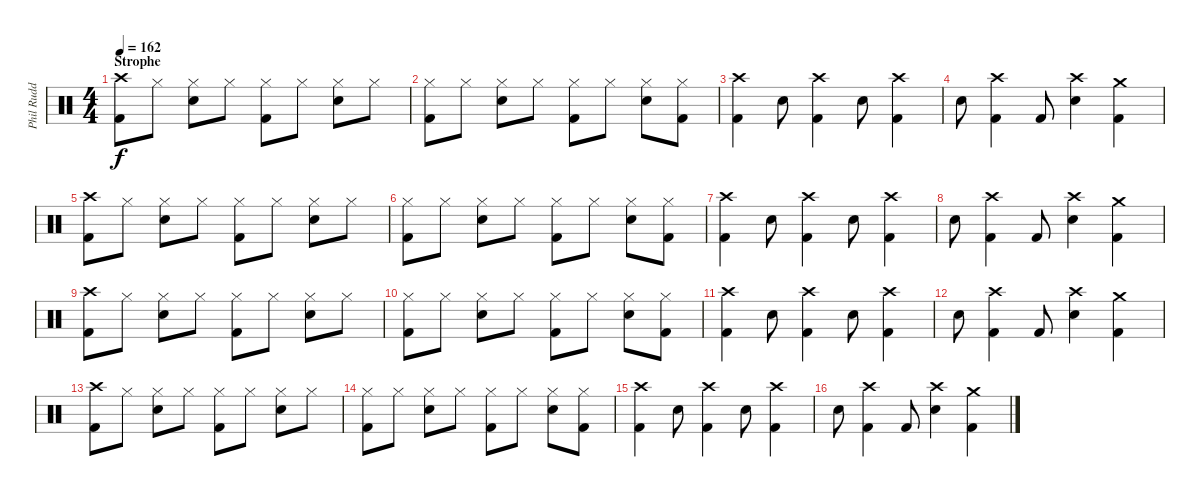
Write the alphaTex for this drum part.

\track ("Phil Rudd" "Phil Rudd") {instrument percussion}
\staff {score}
\articulation defaults
\ts (4 4)
\section ("" "Strophe")
\tempo 162
\clef neutral
\ks c
("Crash high (hit)" "Kick (hit) 2").8{dy f} "Hi-Hat (closed)".8 ("Hi-Hat (closed)" "Snare (hit) 2").8 "Hi-Hat (closed)".8 ("Hi-Hat (closed)" "Kick (hit) 2").8 "Hi-Hat (closed)".8 ("Hi-Hat (closed)" "Snare (hit) 2").8 "Hi-Hat (closed)".8 |
("Hi-Hat (closed)" "Kick (hit) 2").8 "Hi-Hat (closed)".8 ("Hi-Hat (closed)" "Snare (hit) 2").8 "Hi-Hat (closed)".8 ("Hi-Hat (closed)" "Kick (hit) 2").8 "Hi-Hat (closed)".8 ("Hi-Hat (closed)" "Snare (hit) 2").8 ("Hi-Hat (closed)" "Kick (hit) 2").8 |
("Crash high (hit)" "Kick (hit) 2").4 "Snare (hit) 2".8 ("Crash high (hit)" "Kick (hit) 2").4 "Snare (hit) 2".8 ("Crash high (hit)" "Kick (hit) 2").4 |
"Snare (hit) 2".8 ("Crash high (hit)" "Kick (hit) 2").4 "Kick (hit) 2".8 ("Crash high (hit)" "Snare (hit) 2").4 ("Crash medium (hit)" "Kick (hit) 2").4 |
("Crash high (hit)" "Kick (hit) 2").8 "Hi-Hat (closed)".8 ("Hi-Hat (closed)" "Snare (hit) 2").8 "Hi-Hat (closed)".8 ("Hi-Hat (closed)" "Kick (hit) 2").8 "Hi-Hat (closed)".8 ("Hi-Hat (closed)" "Snare (hit) 2").8 "Hi-Hat (closed)".8 |
("Hi-Hat (closed)" "Kick (hit) 2").8 "Hi-Hat (closed)".8 ("Hi-Hat (closed)" "Snare (hit) 2").8 "Hi-Hat (closed)".8 ("Hi-Hat (closed)" "Kick (hit) 2").8 "Hi-Hat (closed)".8 ("Hi-Hat (closed)" "Snare (hit) 2").8 ("Hi-Hat (closed)" "Kick (hit) 2").8 |
("Crash high (hit)" "Kick (hit) 2").4 "Snare (hit) 2".8 ("Crash high (hit)" "Kick (hit) 2").4 "Snare (hit) 2".8 ("Crash high (hit)" "Kick (hit) 2").4 |
"Snare (hit) 2".8 ("Crash high (hit)" "Kick (hit) 2").4 "Kick (hit) 2".8 ("Crash high (hit)" "Snare (hit) 2").4 ("Crash medium (hit)" "Kick (hit) 2").4 |
("Crash high (hit)" "Kick (hit) 2").8 "Hi-Hat (closed)".8 ("Hi-Hat (closed)" "Snare (hit) 2").8 "Hi-Hat (closed)".8 ("Hi-Hat (closed)" "Kick (hit) 2").8 "Hi-Hat (closed)".8 ("Hi-Hat (closed)" "Snare (hit) 2").8 "Hi-Hat (closed)".8 |
("Hi-Hat (closed)" "Kick (hit) 2").8 "Hi-Hat (closed)".8 ("Hi-Hat (closed)" "Snare (hit) 2").8 "Hi-Hat (closed)".8 ("Hi-Hat (closed)" "Kick (hit) 2").8 "Hi-Hat (closed)".8 ("Hi-Hat (closed)" "Snare (hit) 2").8 ("Hi-Hat (closed)" "Kick (hit) 2").8 |
("Crash high (hit)" "Kick (hit) 2").4 "Snare (hit) 2".8 ("Crash high (hit)" "Kick (hit) 2").4 "Snare (hit) 2".8 ("Crash high (hit)" "Kick (hit) 2").4 |
"Snare (hit) 2".8 ("Crash high (hit)" "Kick (hit) 2").4 "Kick (hit) 2".8 ("Crash high (hit)" "Snare (hit) 2").4 ("Crash medium (hit)" "Kick (hit) 2").4 |
("Crash high (hit)" "Kick (hit) 2").8 "Hi-Hat (closed)".8 ("Hi-Hat (closed)" "Snare (hit) 2").8 "Hi-Hat (closed)".8 ("Hi-Hat (closed)" "Kick (hit) 2").8 "Hi-Hat (closed)".8 ("Hi-Hat (closed)" "Snare (hit) 2").8 "Hi-Hat (closed)".8 |
("Hi-Hat (closed)" "Kick (hit) 2").8 "Hi-Hat (closed)".8 ("Hi-Hat (closed)" "Snare (hit) 2").8 "Hi-Hat (closed)".8 ("Hi-Hat (closed)" "Kick (hit) 2").8 "Hi-Hat (closed)".8 ("Hi-Hat (closed)" "Snare (hit) 2").8 ("Hi-Hat (closed)" "Kick (hit) 2").8 |
("Crash high (hit)" "Kick (hit) 2").4 "Snare (hit) 2".8 ("Crash high (hit)" "Kick (hit) 2").4 "Snare (hit) 2".8 ("Crash high (hit)" "Kick (hit) 2").4 |
"Snare (hit) 2".8 ("Crash high (hit)" "Kick (hit) 2").4 "Kick (hit) 2".8 ("Crash high (hit)" "Snare (hit) 2").4 ("Crash medium (hit)" "Kick (hit) 2").4
